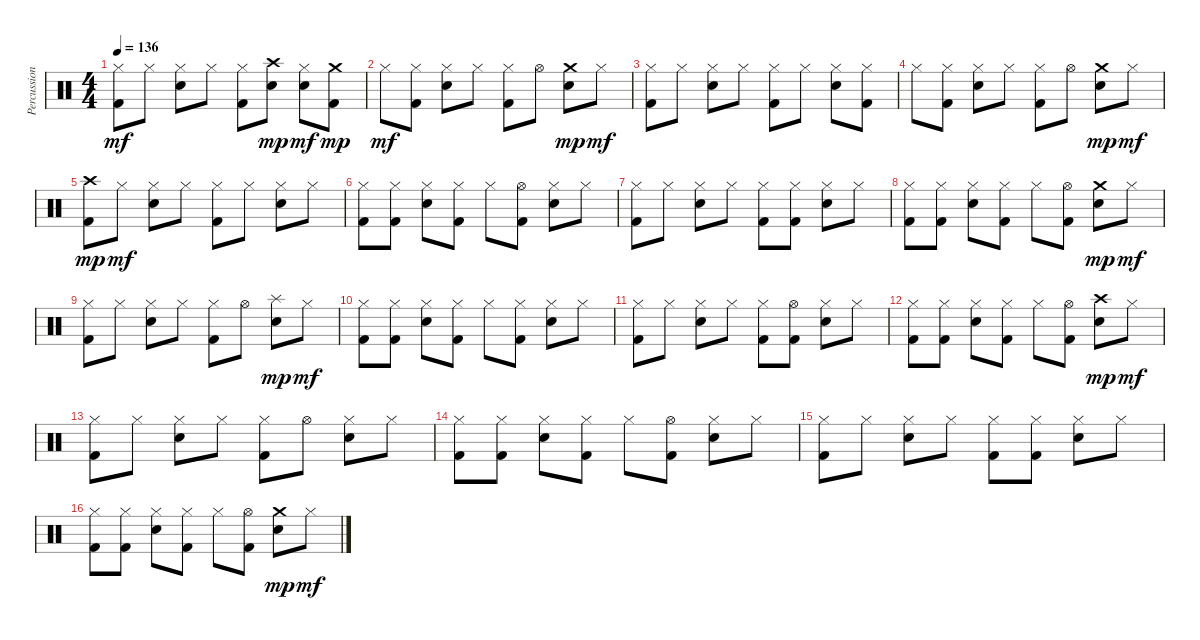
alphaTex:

\track ("Percussions" "Percussion") {instrument percussion}
\staff {score}
\articulation defaults
\ts (4 4)
\tempo 136
\clef neutral
\ks c
("Hi-Hat (closed)" "Kick (hit) 2").8{dy mf} "Hi-Hat (closed)".8 ("Hi-Hat (closed)" "Electric Snare (hit)").8 "Hi-Hat (closed)".8 ("Hi-Hat (closed)" "Kick (hit) 2").8 ("Crash high (hit)" "Electric Snare (hit)").8{dy mp} ("Hi-Hat (closed)" "Electric Snare (hit)").8{dy mf} ("Crash medium (hit)" "Kick (hit) 2").8{dy mp} |
"Hi-Hat (closed)".8{dy mf} ("Hi-Hat (closed)" "Kick (hit) 2").8 ("Hi-Hat (closed)" "Electric Snare (hit)").8 "Hi-Hat (closed)".8 ("Hi-Hat (closed)" "Kick (hit) 2").8 "Hi-Hat (open)".8 ("Crash medium (hit)" "Electric Snare (hit)").8{dy mp} "Hi-Hat (closed)".8{dy mf} |
("Hi-Hat (closed)" "Kick (hit) 2").8 "Hi-Hat (closed)".8 ("Hi-Hat (closed)" "Electric Snare (hit)").8 "Hi-Hat (closed)".8 ("Hi-Hat (closed)" "Kick (hit) 2").8 "Hi-Hat (closed)".8 ("Hi-Hat (closed)" "Electric Snare (hit)").8 ("Hi-Hat (closed)" "Kick (hit) 2").8 |
"Hi-Hat (closed)".8 ("Hi-Hat (closed)" "Kick (hit) 2").8 ("Hi-Hat (closed)" "Electric Snare (hit)").8 "Hi-Hat (closed)".8 ("Hi-Hat (closed)" "Kick (hit) 2").8 "Hi-Hat (open)".8 ("Crash medium (hit)" "Electric Snare (hit)").8{dy mp} "Hi-Hat (closed)".8{dy mf} |
("Crash high (hit)" "Kick (hit) 2").8{dy mp} "Hi-Hat (closed)".8{dy mf} ("Hi-Hat (closed)" "Electric Snare (hit)").8 "Hi-Hat (closed)".8 ("Hi-Hat (closed)" "Kick (hit) 2").8 "Hi-Hat (closed)".8 ("Hi-Hat (closed)" "Electric Snare (hit)").8 "Hi-Hat (closed)".8 |
("Hi-Hat (closed)" "Kick (hit) 2").8 ("Hi-Hat (closed)" "Kick (hit) 2").8 ("Hi-Hat (closed)" "Electric Snare (hit)").8 ("Hi-Hat (closed)" "Kick (hit) 2").8 "Hi-Hat (closed)".8 ("Hi-Hat (open)" "Kick (hit) 2").8 ("Hi-Hat (closed)" "Electric Snare (hit)").8 "Hi-Hat (closed)".8 |
("Hi-Hat (closed)" "Kick (hit) 2").8 "Hi-Hat (closed)".8 ("Hi-Hat (closed)" "Electric Snare (hit)").8 "Hi-Hat (closed)".8 ("Hi-Hat (closed)" "Kick (hit) 2").8 ("Hi-Hat (closed)" "Kick (hit) 2").8 ("Hi-Hat (closed)" "Electric Snare (hit)").8 "Hi-Hat (closed)".8 |
("Hi-Hat (closed)" "Kick (hit) 2").8 ("Hi-Hat (closed)" "Kick (hit) 2").8 ("Hi-Hat (closed)" "Electric Snare (hit)").8 ("Hi-Hat (closed)" "Kick (hit) 2").8 "Hi-Hat (closed)".8 ("Hi-Hat (open)" "Kick (hit) 2").8 ("Crash medium (hit)" "Electric Snare (hit)").8{dy mp} "Hi-Hat (closed)".8{dy mf} |
("Hi-Hat (closed)" "Kick (hit) 2").8 "Hi-Hat (closed)".8 ("Hi-Hat (closed)" "Electric Snare (hit)").8 "Hi-Hat (closed)".8 ("Hi-Hat (closed)" "Kick (hit) 2").8 "Hi-Hat (open)".8 ("Splash (hit)" "Electric Snare (hit)").8{dy mp} "Hi-Hat (closed)".8{dy mf} |
("Hi-Hat (closed)" "Kick (hit) 2").8 ("Hi-Hat (closed)" "Kick (hit) 2").8 ("Hi-Hat (closed)" "Electric Snare (hit)").8 ("Hi-Hat (closed)" "Kick (hit) 2").8 "Hi-Hat (closed)".8 ("Hi-Hat (closed)" "Kick (hit) 2").8 ("Hi-Hat (closed)" "Electric Snare (hit)").8 "Hi-Hat (closed)".8 |
("Hi-Hat (closed)" "Kick (hit) 2").8 "Hi-Hat (closed)".8 ("Hi-Hat (closed)" "Electric Snare (hit)").8 "Hi-Hat (closed)".8 ("Hi-Hat (closed)" "Kick (hit) 2").8 ("Hi-Hat (open)" "Kick (hit) 2").8 ("Hi-Hat (closed)" "Electric Snare (hit)").8 "Hi-Hat (closed)".8 |
("Hi-Hat (closed)" "Kick (hit) 2").8 ("Hi-Hat (closed)" "Kick (hit) 2").8 ("Hi-Hat (closed)" "Electric Snare (hit)").8 ("Hi-Hat (closed)" "Kick (hit) 2").8 "Hi-Hat (closed)".8 ("Hi-Hat (open)" "Kick (hit) 2").8 ("Crash high (hit)" "Electric Snare (hit)").8{dy mp} "Hi-Hat (closed)".8{dy mf} |
("Hi-Hat (closed)" "Kick (hit) 2").8 "Hi-Hat (closed)".8 ("Hi-Hat (closed)" "Electric Snare (hit)").8 "Hi-Hat (closed)".8 ("Hi-Hat (closed)" "Kick (hit) 2").8 "Hi-Hat (open)".8 ("Hi-Hat (closed)" "Electric Snare (hit)").8 "Hi-Hat (closed)".8 |
("Hi-Hat (closed)" "Kick (hit) 2").8 ("Hi-Hat (closed)" "Kick (hit) 2").8 ("Hi-Hat (closed)" "Electric Snare (hit)").8 ("Hi-Hat (closed)" "Kick (hit) 2").8 "Hi-Hat (closed)".8 ("Hi-Hat (open)" "Kick (hit) 2").8 ("Hi-Hat (closed)" "Electric Snare (hit)").8 "Hi-Hat (closed)".8 |
("Hi-Hat (closed)" "Kick (hit) 2").8 "Hi-Hat (closed)".8 ("Hi-Hat (closed)" "Electric Snare (hit)").8 "Hi-Hat (closed)".8 ("Hi-Hat (closed)" "Kick (hit) 2").8 ("Hi-Hat (closed)" "Kick (hit) 2").8 ("Hi-Hat (closed)" "Electric Snare (hit)").8 "Hi-Hat (closed)".8 |
("Hi-Hat (closed)" "Kick (hit) 2").8 ("Hi-Hat (closed)" "Kick (hit) 2").8 ("Hi-Hat (closed)" "Electric Snare (hit)").8 ("Hi-Hat (closed)" "Kick (hit) 2").8 "Hi-Hat (closed)".8 ("Hi-Hat (open)" "Kick (hit) 2").8 ("Crash medium (hit)" "Electric Snare (hit)").8{dy mp} "Hi-Hat (closed)".8{dy mf}
